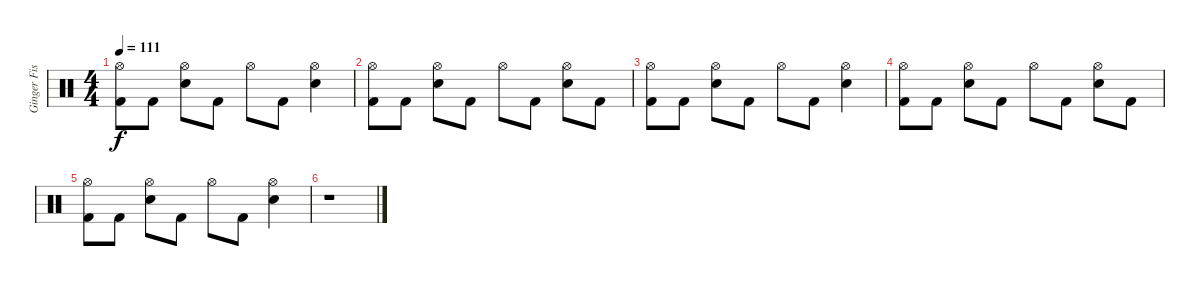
\track ("Ginger Fish" "Ginger Fis") {instrument percussion}
\staff {score}
\articulation defaults
\ts (4 4)
\tempo 111
\clef neutral
\ks c
("Hi-Hat (open)" "Kick (hit) 2").8{dy f} "Kick (hit) 2".8 ("Hi-Hat (open)" "Snare (hit) 2").8 "Kick (hit) 2".8 "Hi-Hat (open)".8 "Kick (hit) 2".8 ("Hi-Hat (open)" "Snare (hit) 2").4 |
("Hi-Hat (open)" "Kick (hit) 2").8 "Kick (hit) 2".8 ("Hi-Hat (open)" "Snare (hit) 2").8 "Kick (hit) 2".8 "Hi-Hat (open)".8 "Kick (hit) 2".8 ("Hi-Hat (open)" "Snare (hit) 2").8 "Kick (hit) 2".8 |
("Hi-Hat (open)" "Kick (hit) 2").8 "Kick (hit) 2".8 ("Hi-Hat (open)" "Snare (hit) 2").8 "Kick (hit) 2".8 "Hi-Hat (open)".8 "Kick (hit) 2".8 ("Hi-Hat (open)" "Snare (hit) 2").4 |
("Hi-Hat (open)" "Kick (hit) 2").8 "Kick (hit) 2".8 ("Hi-Hat (open)" "Snare (hit) 2").8 "Kick (hit) 2".8 "Hi-Hat (open)".8 "Kick (hit) 2".8 ("Hi-Hat (open)" "Snare (hit) 2").8 "Kick (hit) 2".8 |
("Hi-Hat (open)" "Kick (hit) 2").8 "Kick (hit) 2".8 ("Hi-Hat (open)" "Snare (hit) 2").8 "Kick (hit) 2".8 "Hi-Hat (open)".8 "Kick (hit) 2".8 ("Hi-Hat (open)" "Snare (hit) 2").4 |
r.1
